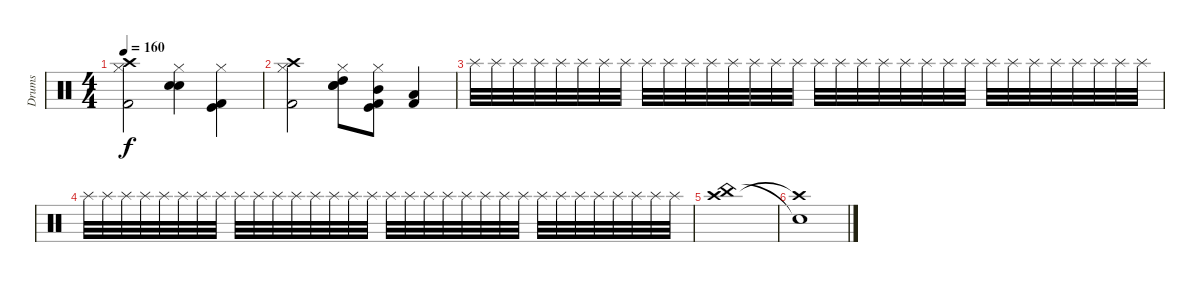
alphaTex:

\track ("Drums" "Drums") {instrument percussion}
\staff {score}
\articulation defaults
\ts (4 4)
\tempo 160
\clef neutral
\ks c
("Crash high (hit)" "Hi-Hat (closed)" "Kick (hit) 2").2{dy f} ("Hi-Hat (closed)" "Snare (hit) 2" "Electric Snare (hit)").4 ("Hi-Hat (closed)" "Kick (hit) 2" "Kick (hit)").4 |
("Crash high (hit)" "Hi-Hat (closed)" "Kick (hit) 2").2 ("Hi-Hat (closed)" "Snare (hit) 2" "Electric Snare (hit)" "High Tom (hit)").8 ("Hi-Hat (closed)" "Kick (hit) 2" "Kick (hit)" "Mid Tom (hit)").8 ("Kick (hit) 2" "Low Tom (hit)").4 |
"Splash (hit)".32 "Splash (hit)".32 "Splash (hit)".32 "Splash (hit)".32 "Splash (hit)".32 "Splash (hit)".32 "Splash (hit)".32 "Splash (hit)".32 "Splash (hit)".32 "Splash (hit)".32 "Splash (hit)".32 "Splash (hit)".32 "Splash (hit)".32 "Splash (hit)".32 "Splash (hit)".32 "Splash (hit)".32 "Splash (hit)".32 "Splash (hit)".32 "Splash (hit)".32 "Splash (hit)".32 "Splash (hit)".32 "Splash (hit)".32 "Splash (hit)".32 "Splash (hit)".32 "Splash (hit)".32 "Splash (hit)".32 "Splash (hit)".32 "Splash (hit)".32 "Splash (hit)".32 "Splash (hit)".32 "Splash (hit)".32 "Splash (hit)".32 |
"Splash (hit)".32 "Splash (hit)".32 "Splash (hit)".32 "Splash (hit)".32 "Splash (hit)".32 "Splash (hit)".32 "Splash (hit)".32 "Splash (hit)".32 "Splash (hit)".32 "Splash (hit)".32 "Splash (hit)".32 "Splash (hit)".32 "Splash (hit)".32 "Splash (hit)".32 "Splash (hit)".32 "Splash (hit)".32 "Splash (hit)".32 "Splash (hit)".32 "Splash (hit)".32 "Splash (hit)".32 "Splash (hit)".32 "Splash (hit)".32 "Splash (hit)".32 "Splash (hit)".32 "Splash (hit)".32 "Splash (hit)".32 "Splash (hit)".32 "Splash (hit)".32 "Splash (hit)".32 "Splash (hit)".32 "Splash (hit)".32 "Splash (hit)".32 |
("Crash high (hit)" "China (hit)").1 |
("Crash high (hit)"{t} "Snare (hit)"{t}).1
